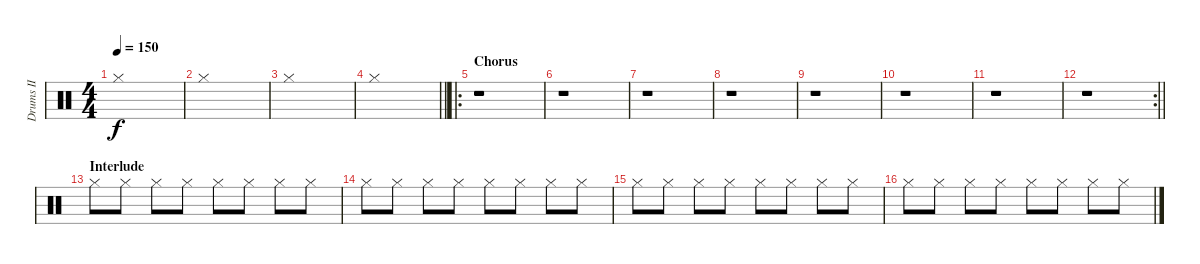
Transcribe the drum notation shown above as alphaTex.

\track ("Drums II" "Drums II") {instrument percussion}
\staff {score}
\articulation defaults
\ts (4 4)
\tempo 150
\clef neutral
\ks c "Hi-Hat (closed)".1{dy f}
|
"Hi-Hat (closed)".1 |
"Hi-Hat (closed)".1 |
\barLineRight lightlight "Hi-Hat (closed)".1
|
\ro
\section ("" "Chorus")
r.1 |
r.1 |
r.1 |
r.1 |
r.1 |
r.1 |
r.1 |
\rc 2
\barLineRight lightlight
r.1 |
\section ("" "Interlude")
"Hi-Hat (closed)".8 "Hi-Hat (closed)".8 "Hi-Hat (closed)".8 "Hi-Hat (closed)".8 "Hi-Hat (closed)".8 "Hi-Hat (closed)".8 "Hi-Hat (closed)".8 "Hi-Hat (closed)".8 |
"Hi-Hat (closed)".8 "Hi-Hat (closed)".8 "Hi-Hat (closed)".8 "Hi-Hat (closed)".8 "Hi-Hat (closed)".8 "Hi-Hat (closed)".8 "Hi-Hat (closed)".8 "Hi-Hat (closed)".8 |
"Hi-Hat (closed)".8 "Hi-Hat (closed)".8 "Hi-Hat (closed)".8 "Hi-Hat (closed)".8 "Hi-Hat (closed)".8 "Hi-Hat (closed)".8 "Hi-Hat (closed)".8 "Hi-Hat (closed)".8 |
"Hi-Hat (closed)".8 "Hi-Hat (closed)".8 "Hi-Hat (closed)".8 "Hi-Hat (closed)".8 "Hi-Hat (closed)".8 "Hi-Hat (closed)".8 "Hi-Hat (closed)".8 "Hi-Hat (closed)".8
